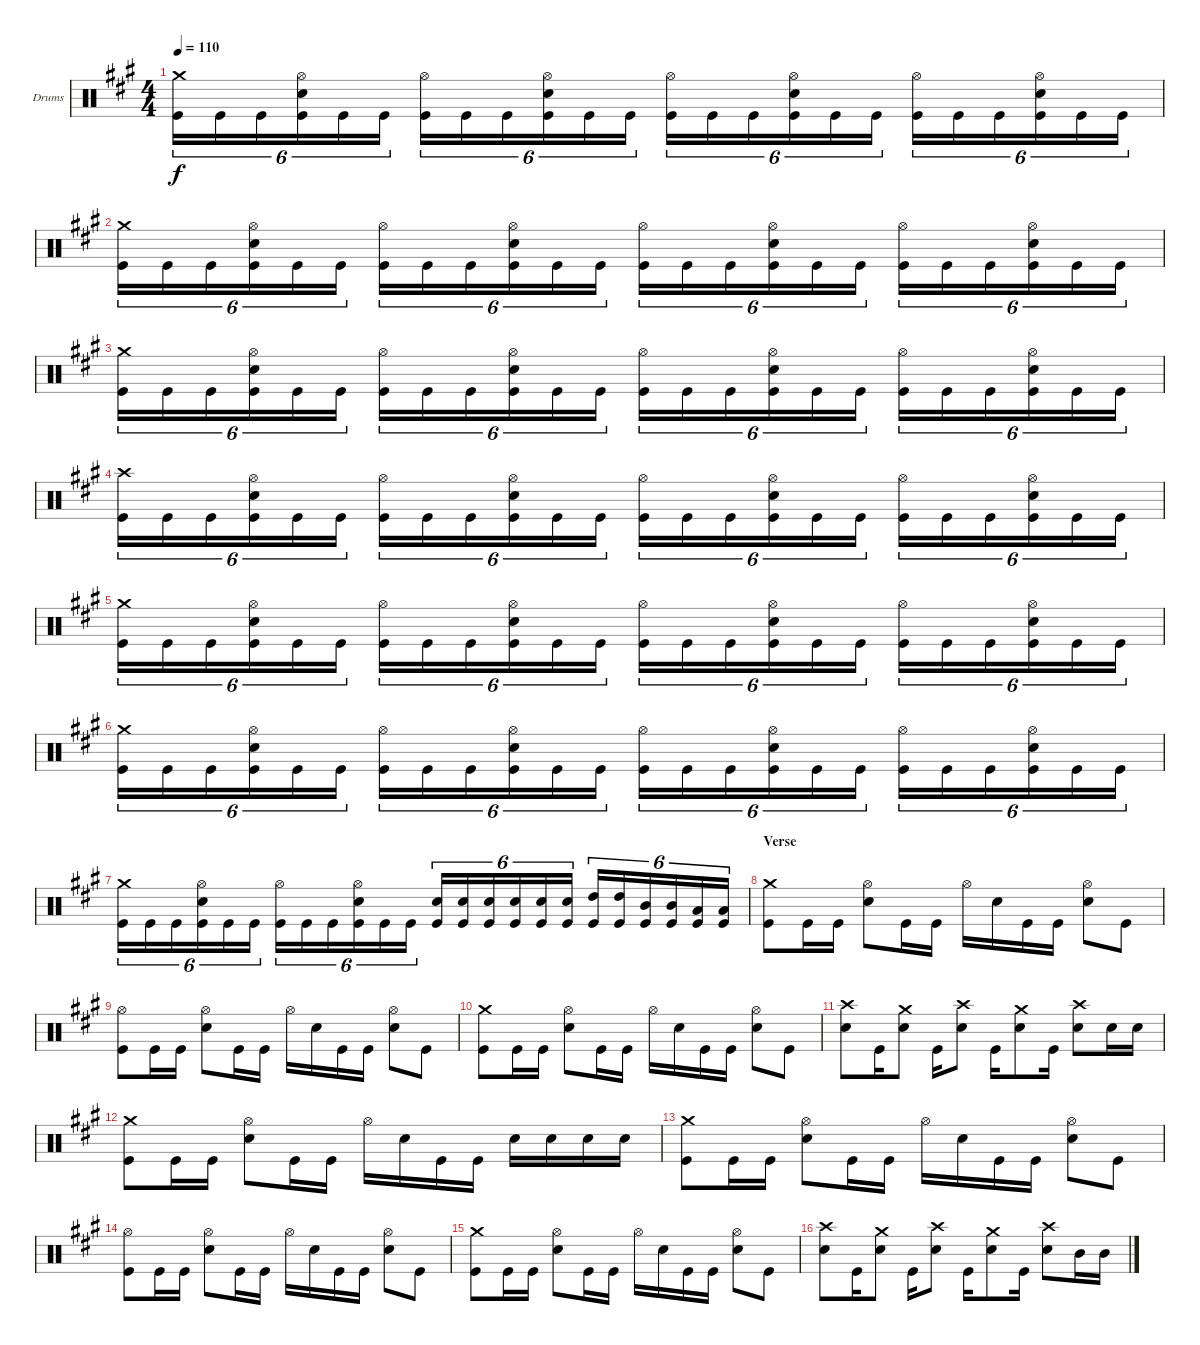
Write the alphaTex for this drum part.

\bracketExtendMode groupsimilarinstruments
\firstSystemTrackNameOrientation horizontal
\otherSystemsTrackNameOrientation horizontal
\track ("Drumkit" "Drums") {instrument percussion}
\staff {score}
\articulation defaults
\ts (4 4)
\tempo 110
\clef neutral
\ks a
("Kick (hit)" "Crash medium (hit)").16{tu (6 4) dy f} "Kick (hit)".16{tu (6 4)} "Kick (hit)".16{tu (6 4)} ("Snare (hit) 2" "Kick (hit)" "Hi-Hat (open)").16{tu (6 4)} "Kick (hit)".16{tu (6 4)} "Kick (hit)".16{tu (6 4)} ("Kick (hit)" "Hi-Hat (open)").16{tu (6 4)} "Kick (hit)".16{tu (6 4)} "Kick (hit)".16{tu (6 4)} ("Snare (hit) 2" "Kick (hit)" "Hi-Hat (open)").16{tu (6 4)} "Kick (hit)".16{tu (6 4)} "Kick (hit)".16{tu (6 4)} ("Kick (hit)" "Hi-Hat (open)").16{tu (6 4)} "Kick (hit)".16{tu (6 4)} "Kick (hit)".16{tu (6 4)} ("Snare (hit) 2" "Kick (hit)" "Hi-Hat (open)").16{tu (6 4)} "Kick (hit)".16{tu (6 4)} "Kick (hit)".16{tu (6 4)} ("Kick (hit)" "Hi-Hat (open)").16{tu (6 4)} "Kick (hit)".16{tu (6 4)} "Kick (hit)".16{tu (6 4)} ("Snare (hit) 2" "Kick (hit)" "Hi-Hat (open)").16{tu (6 4)} "Kick (hit)".16{tu (6 4)} "Kick (hit)".16{tu (6 4)} |
("Kick (hit)" "Crash medium (hit)").16{tu (6 4)} "Kick (hit)".16{tu (6 4)} "Kick (hit)".16{tu (6 4)} ("Snare (hit) 2" "Kick (hit)" "Hi-Hat (open)").16{tu (6 4)} "Kick (hit)".16{tu (6 4)} "Kick (hit)".16{tu (6 4)} ("Kick (hit)" "Hi-Hat (open)").16{tu (6 4)} "Kick (hit)".16{tu (6 4)} "Kick (hit)".16{tu (6 4)} ("Snare (hit) 2" "Kick (hit)" "Hi-Hat (open)").16{tu (6 4)} "Kick (hit)".16{tu (6 4)} "Kick (hit)".16{tu (6 4)} ("Kick (hit)" "Hi-Hat (open)").16{tu (6 4)} "Kick (hit)".16{tu (6 4)} "Kick (hit)".16{tu (6 4)} ("Snare (hit) 2" "Kick (hit)" "Hi-Hat (open)").16{tu (6 4)} "Kick (hit)".16{tu (6 4)} "Kick (hit)".16{tu (6 4)} ("Kick (hit)" "Hi-Hat (open)").16{tu (6 4)} "Kick (hit)".16{tu (6 4)} "Kick (hit)".16{tu (6 4)} ("Snare (hit) 2" "Kick (hit)" "Hi-Hat (open)").16{tu (6 4)} "Kick (hit)".16{tu (6 4)} "Kick (hit)".16{tu (6 4)} |
("Kick (hit)" "Crash medium (hit)").16{tu (6 4)} "Kick (hit)".16{tu (6 4)} "Kick (hit)".16{tu (6 4)} ("Snare (hit) 2" "Kick (hit)" "Hi-Hat (open)").16{tu (6 4)} "Kick (hit)".16{tu (6 4)} "Kick (hit)".16{tu (6 4)} ("Kick (hit)" "Hi-Hat (open)").16{tu (6 4)} "Kick (hit)".16{tu (6 4)} "Kick (hit)".16{tu (6 4)} ("Snare (hit) 2" "Kick (hit)" "Hi-Hat (open)").16{tu (6 4)} "Kick (hit)".16{tu (6 4)} "Kick (hit)".16{tu (6 4)} ("Kick (hit)" "Hi-Hat (open)").16{tu (6 4)} "Kick (hit)".16{tu (6 4)} "Kick (hit)".16{tu (6 4)} ("Snare (hit) 2" "Kick (hit)" "Hi-Hat (open)").16{tu (6 4)} "Kick (hit)".16{tu (6 4)} "Kick (hit)".16{tu (6 4)} ("Kick (hit)" "Hi-Hat (open)").16{tu (6 4)} "Kick (hit)".16{tu (6 4)} "Kick (hit)".16{tu (6 4)} ("Snare (hit) 2" "Kick (hit)" "Hi-Hat (open)").16{tu (6 4)} "Kick (hit)".16{tu (6 4)} "Kick (hit)".16{tu (6 4)} |
("Crash high (hit)" "Kick (hit)").16{tu (6 4)} "Kick (hit)".16{tu (6 4)} "Kick (hit)".16{tu (6 4)} ("Snare (hit) 2" "Kick (hit)" "Hi-Hat (open)").16{tu (6 4)} "Kick (hit)".16{tu (6 4)} "Kick (hit)".16{tu (6 4)} ("Kick (hit)" "Hi-Hat (open)").16{tu (6 4)} "Kick (hit)".16{tu (6 4)} "Kick (hit)".16{tu (6 4)} ("Snare (hit) 2" "Kick (hit)" "Hi-Hat (open)").16{tu (6 4)} "Kick (hit)".16{tu (6 4)} "Kick (hit)".16{tu (6 4)} ("Kick (hit)" "Hi-Hat (open)").16{tu (6 4)} "Kick (hit)".16{tu (6 4)} "Kick (hit)".16{tu (6 4)} ("Snare (hit) 2" "Kick (hit)" "Hi-Hat (open)").16{tu (6 4)} "Kick (hit)".16{tu (6 4)} "Kick (hit)".16{tu (6 4)} ("Kick (hit)" "Hi-Hat (open)").16{tu (6 4)} "Kick (hit)".16{tu (6 4)} "Kick (hit)".16{tu (6 4)} ("Snare (hit) 2" "Kick (hit)" "Hi-Hat (open)").16{tu (6 4)} "Kick (hit)".16{tu (6 4)} "Kick (hit)".16{tu (6 4)} |
("Kick (hit)" "Crash medium (hit)").16{tu (6 4)} "Kick (hit)".16{tu (6 4)} "Kick (hit)".16{tu (6 4)} ("Snare (hit) 2" "Kick (hit)" "Hi-Hat (open)").16{tu (6 4)} "Kick (hit)".16{tu (6 4)} "Kick (hit)".16{tu (6 4)} ("Kick (hit)" "Hi-Hat (open)").16{tu (6 4)} "Kick (hit)".16{tu (6 4)} "Kick (hit)".16{tu (6 4)} ("Snare (hit) 2" "Kick (hit)" "Hi-Hat (open)").16{tu (6 4)} "Kick (hit)".16{tu (6 4)} "Kick (hit)".16{tu (6 4)} ("Kick (hit)" "Hi-Hat (open)").16{tu (6 4)} "Kick (hit)".16{tu (6 4)} "Kick (hit)".16{tu (6 4)} ("Snare (hit) 2" "Kick (hit)" "Hi-Hat (open)").16{tu (6 4)} "Kick (hit)".16{tu (6 4)} "Kick (hit)".16{tu (6 4)} ("Kick (hit)" "Hi-Hat (open)").16{tu (6 4)} "Kick (hit)".16{tu (6 4)} "Kick (hit)".16{tu (6 4)} ("Snare (hit) 2" "Kick (hit)" "Hi-Hat (open)").16{tu (6 4)} "Kick (hit)".16{tu (6 4)} "Kick (hit)".16{tu (6 4)} |
("Kick (hit)" "Crash medium (hit)").16{tu (6 4)} "Kick (hit)".16{tu (6 4)} "Kick (hit)".16{tu (6 4)} ("Snare (hit) 2" "Kick (hit)" "Hi-Hat (open)").16{tu (6 4)} "Kick (hit)".16{tu (6 4)} "Kick (hit)".16{tu (6 4)} ("Kick (hit)" "Hi-Hat (open)").16{tu (6 4)} "Kick (hit)".16{tu (6 4)} "Kick (hit)".16{tu (6 4)} ("Snare (hit) 2" "Kick (hit)" "Hi-Hat (open)").16{tu (6 4)} "Kick (hit)".16{tu (6 4)} "Kick (hit)".16{tu (6 4)} ("Kick (hit)" "Hi-Hat (open)").16{tu (6 4)} "Kick (hit)".16{tu (6 4)} "Kick (hit)".16{tu (6 4)} ("Snare (hit) 2" "Kick (hit)" "Hi-Hat (open)").16{tu (6 4)} "Kick (hit)".16{tu (6 4)} "Kick (hit)".16{tu (6 4)} ("Kick (hit)" "Hi-Hat (open)").16{tu (6 4)} "Kick (hit)".16{tu (6 4)} "Kick (hit)".16{tu (6 4)} ("Snare (hit) 2" "Kick (hit)" "Hi-Hat (open)").16{tu (6 4)} "Kick (hit)".16{tu (6 4)} "Kick (hit)".16{tu (6 4)} |
("Kick (hit)" "Crash medium (hit)").16{tu (6 4)} "Kick (hit)".16{tu (6 4)} "Kick (hit)".16{tu (6 4)} ("Snare (hit) 2" "Kick (hit)" "Hi-Hat (open)").16{tu (6 4)} "Kick (hit)".16{tu (6 4)} "Kick (hit)".16{tu (6 4)} ("Kick (hit)" "Hi-Hat (open)").16{tu (6 4)} "Kick (hit)".16{tu (6 4)} "Kick (hit)".16{tu (6 4)} ("Snare (hit) 2" "Kick (hit)" "Hi-Hat (open)").16{tu (6 4)} "Kick (hit)".16{tu (6 4)} "Kick (hit)".16{tu (6 4)} ("Kick (hit)" "Snare (hit) 2").16{tu (6 4)} ("Kick (hit)" "Snare (hit) 2").16{tu (6 4)} ("Kick (hit)" "Snare (hit) 2").16{tu (6 4)} ("Kick (hit)" "Snare (hit) 2").16{tu (6 4)} ("Kick (hit)" "Snare (hit) 2").16{tu (6 4)} ("Kick (hit)" "Snare (hit) 2").16{tu (6 4)} ("Kick (hit)" "High Tom (hit)").16{tu (6 4)} ("Kick (hit)" "High Tom (hit)").16{tu (6 4)} ("Kick (hit)" "Mid Tom (hit)").16{tu (6 4)} ("Kick (hit)" "Mid Tom (hit)").16{tu (6 4)} ("Kick (hit)" "Low Tom (hit)").16{tu (6 4)} ("Kick (hit)" "Low Tom (hit)").16{tu (6 4)} |
\section ("" "Verse")
("Kick (hit)" "Crash medium (hit)").8 "Kick (hit)".16 "Kick (hit)".16 ("Snare (hit) 2" "Hi-Hat (open)").8 "Kick (hit)".16 "Kick (hit)".16 "Hi-Hat (open)".16 "Snare (hit) 2".16 "Kick (hit)".16 "Kick (hit)".16 ("Snare (hit) 2" "Hi-Hat (open)").8 "Kick (hit)".8 |
("Kick (hit)" "Hi-Hat (open)").8 "Kick (hit)".16 "Kick (hit)".16 ("Snare (hit) 2" "Hi-Hat (open)").8 "Kick (hit)".16 "Kick (hit)".16 "Hi-Hat (open)".16 "Snare (hit) 2".16 "Kick (hit)".16 "Kick (hit)".16 ("Snare (hit) 2" "Hi-Hat (open)").8 "Kick (hit)".8 |
("Kick (hit)" "Crash medium (hit)").8 "Kick (hit)".16 "Kick (hit)".16 ("Snare (hit) 2" "Hi-Hat (open)").8 "Kick (hit)".16 "Kick (hit)".16 "Hi-Hat (open)".16 "Snare (hit) 2".16 "Kick (hit)".16 "Kick (hit)".16 ("Snare (hit) 2" "Hi-Hat (open)").8 "Kick (hit)".8 |
("Crash high (hit)" "Snare (hit) 2").8 "Kick (hit)".16 ("Snare (hit) 2" "Crash medium (hit)").8 "Kick (hit)".16 ("Snare (hit) 2" "Crash high (hit)").8 "Kick (hit)".16 ("Snare (hit) 2" "Crash medium (hit)").8 "Kick (hit)".16 ("Snare (hit) 2" "Crash high (hit)").8 "Snare (hit) 2".16 "Snare (hit) 2".16 |
("Kick (hit)" "Crash medium (hit)").8 "Kick (hit)".16 "Kick (hit)".16 ("Snare (hit) 2" "Hi-Hat (open)").8 "Kick (hit)".16 "Kick (hit)".16 "Hi-Hat (open)".16 "Snare (hit) 2".16 "Kick (hit)".16 "Kick (hit)".16 "Snare (hit) 2".16 "Snare (hit) 2".16 "Snare (hit) 2".16 "Snare (hit) 2".16 |
("Kick (hit)" "Crash medium (hit)").8 "Kick (hit)".16 "Kick (hit)".16 ("Snare (hit) 2" "Hi-Hat (open)").8 "Kick (hit)".16 "Kick (hit)".16 "Hi-Hat (open)".16 "Snare (hit) 2".16 "Kick (hit)".16 "Kick (hit)".16 ("Snare (hit) 2" "Hi-Hat (open)").8 "Kick (hit)".8 |
("Kick (hit)" "Hi-Hat (open)").8 "Kick (hit)".16 "Kick (hit)".16 ("Snare (hit) 2" "Hi-Hat (open)").8 "Kick (hit)".16 "Kick (hit)".16 "Hi-Hat (open)".16 "Snare (hit) 2".16 "Kick (hit)".16 "Kick (hit)".16 ("Snare (hit) 2" "Hi-Hat (open)").8 "Kick (hit)".8 |
("Kick (hit)" "Crash medium (hit)").8 "Kick (hit)".16 "Kick (hit)".16 ("Snare (hit) 2" "Hi-Hat (open)").8 "Kick (hit)".16 "Kick (hit)".16 "Hi-Hat (open)".16 "Snare (hit) 2".16 "Kick (hit)".16 "Kick (hit)".16 ("Snare (hit) 2" "Hi-Hat (open)").8 "Kick (hit)".8 |
("Crash high (hit)" "Snare (hit) 2").8 "Kick (hit)".16 ("Snare (hit) 2" "Crash medium (hit)").8 "Kick (hit)".16 ("Snare (hit) 2" "Crash high (hit)").8 "Kick (hit)".16 ("Snare (hit) 2" "Crash medium (hit)").8 "Kick (hit)".16 ("Snare (hit) 2" "Crash high (hit)").8 "Mid Tom (hit)".16 "Mid Tom (hit)".16
